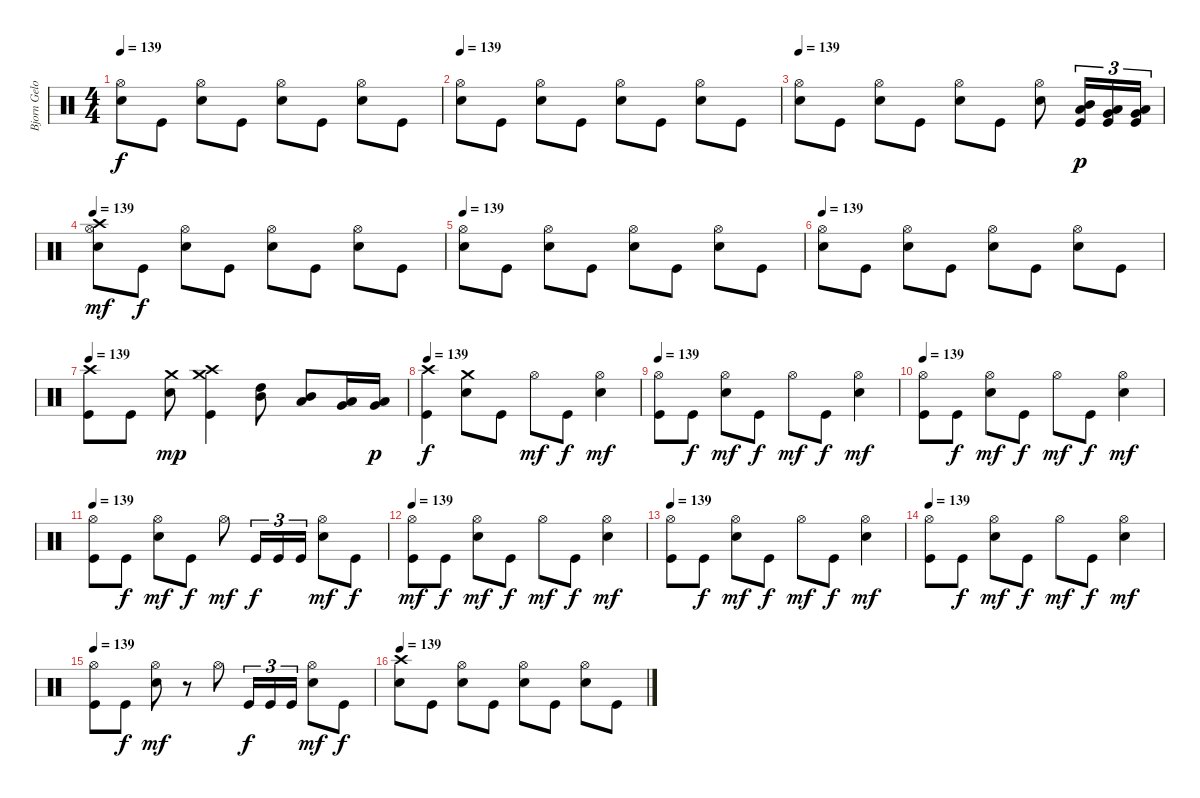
\track ("Bjorn Gelotte-Drum" "Bjorn Gelo") {instrument percussion}
\staff {score}
\articulation defaults
\ts (4 4)
\tempo 139
\clef neutral
\ks c
("Electric Snare (hit)" "Hi-Hat (open)").8{dy f} "Kick (hit)".8 ("Electric Snare (hit)" "Hi-Hat (open)").8 "Kick (hit)".8 ("Electric Snare (hit)" "Hi-Hat (open)").8 "Kick (hit)".8 ("Electric Snare (hit)" "Hi-Hat (open)").8 "Kick (hit)".8 |
\tempo 139
("Electric Snare (hit)" "Hi-Hat (open)").8 "Kick (hit)".8 ("Electric Snare (hit)" "Hi-Hat (open)").8 "Kick (hit)".8 ("Electric Snare (hit)" "Hi-Hat (open)").8 "Kick (hit)".8 ("Electric Snare (hit)" "Hi-Hat (open)").8 "Kick (hit)".8 |
\tempo 139
("Electric Snare (hit)" "Hi-Hat (open)").8 "Kick (hit)".8 ("Electric Snare (hit)" "Hi-Hat (open)").8 "Kick (hit)".8 ("Electric Snare (hit)" "Hi-Hat (open)").8 "Kick (hit)".8 ("Electric Snare (hit)" "Hi-Hat (open)").8 ("Kick (hit)" "Low Tom (hit)" "Mid Tom (hit)").16{tu (3 2) dy p} ("Kick (hit)" "Very Low Tom (hit)" "Low Tom (hit)").16{tu (3 2)} ("Kick (hit)" "Low Floor Tom (hit)" "Very Low Tom (hit)").16{tu (3 2)} |
\tempo 139
("Electric Snare (hit)" "Hi-Hat (open)" "Crash high (hit)").8{dy mf} "Kick (hit)".8{dy f} ("Electric Snare (hit)" "Hi-Hat (open)").8 "Kick (hit)".8 ("Electric Snare (hit)" "Hi-Hat (open)").8 "Kick (hit)".8 ("Electric Snare (hit)" "Hi-Hat (open)").8 "Kick (hit)".8 |
\tempo 139
("Electric Snare (hit)" "Hi-Hat (open)").8 "Kick (hit)".8 ("Electric Snare (hit)" "Hi-Hat (open)").8 "Kick (hit)".8 ("Electric Snare (hit)" "Hi-Hat (open)").8 "Kick (hit)".8 ("Electric Snare (hit)" "Hi-Hat (open)").8 "Kick (hit)".8 |
\tempo 139
("Electric Snare (hit)" "Hi-Hat (open)").8 "Kick (hit)".8 ("Electric Snare (hit)" "Hi-Hat (open)").8 "Kick (hit)".8 ("Electric Snare (hit)" "Hi-Hat (open)").8 "Kick (hit)".8 ("Electric Snare (hit)" "Hi-Hat (open)").8 "Kick (hit)".8 |
\tempo 139
("Kick (hit)" "Crash high (hit)").8 "Kick (hit)".8 ("Electric Snare (hit)" "Crash medium (hit)").8{dy mp} ("Kick (hit)" "Crash high (hit)" "Crash medium (hit)").4 ("Mid Tom (hit)" "High Tom (hit)").8 ("Low Tom (hit)" "Mid Tom (hit)").8 ("Very Low Tom (hit)" "Low Tom (hit)").16 ("Very Low Tom (hit)" "Low Tom (hit)").16{dy p} |
\tempo 139
("Kick (hit)" "Crash high (hit)").4{dy f} ("Electric Snare (hit)" "Crash medium (hit)").8 "Kick (hit)".8 "Hi-Hat (open)".8{dy mf} "Kick (hit)".8{dy f} ("Electric Snare (hit)" "Hi-Hat (open)").4{dy mf} |
\tempo 139
("Kick (hit)" "Hi-Hat (open)").8 "Kick (hit)".8{dy f} ("Electric Snare (hit)" "Hi-Hat (open)").8{dy mf} "Kick (hit)".8{dy f} "Hi-Hat (open)".8{dy mf} "Kick (hit)".8{dy f} ("Electric Snare (hit)" "Hi-Hat (open)").4{dy mf} |
\tempo 139
("Kick (hit)" "Hi-Hat (open)").8 "Kick (hit)".8{dy f} ("Electric Snare (hit)" "Hi-Hat (open)").8{dy mf} "Kick (hit)".8{dy f} "Hi-Hat (open)".8{dy mf} "Kick (hit)".8{dy f} ("Electric Snare (hit)" "Hi-Hat (open)").4{dy mf} |
\tempo 139
("Kick (hit)" "Hi-Hat (open)").8 "Kick (hit)".8{dy f} ("Electric Snare (hit)" "Hi-Hat (open)").8{dy mf} "Kick (hit)".8{dy f} "Hi-Hat (open)".8{dy mf} "Kick (hit)".16{tu (3 2) dy f} "Kick (hit)".16{tu (3 2)} "Kick (hit)".16{tu (3 2)} ("Electric Snare (hit)" "Hi-Hat (open)").8{dy mf} "Kick (hit)".8{dy f} |
\tempo 139
("Kick (hit)" "Hi-Hat (open)").8{dy mf} "Kick (hit)".8{dy f} ("Electric Snare (hit)" "Hi-Hat (open)").8{dy mf} "Kick (hit)".8{dy f} "Hi-Hat (open)".8{dy mf} "Kick (hit)".8{dy f} ("Electric Snare (hit)" "Hi-Hat (open)").4{dy mf} |
\tempo 139
("Kick (hit)" "Hi-Hat (open)").8 "Kick (hit)".8{dy f} ("Electric Snare (hit)" "Hi-Hat (open)").8{dy mf} "Kick (hit)".8{dy f} "Hi-Hat (open)".8{dy mf} "Kick (hit)".8{dy f} ("Electric Snare (hit)" "Hi-Hat (open)").4{dy mf} |
\tempo 139
("Kick (hit)" "Hi-Hat (open)").8 "Kick (hit)".8{dy f} ("Electric Snare (hit)" "Hi-Hat (open)").8{dy mf} "Kick (hit)".8{dy f} "Hi-Hat (open)".8{dy mf} "Kick (hit)".8{dy f} ("Electric Snare (hit)" "Hi-Hat (open)").4{dy mf} |
\tempo 139
("Kick (hit)" "Hi-Hat (open)").8 "Kick (hit)".8{dy f} ("Electric Snare (hit)" "Hi-Hat (open)").8{dy mf} r.8 "Hi-Hat (open)".8 "Kick (hit)".16{tu (3 2) dy f} "Kick (hit)".16{tu (3 2)} "Kick (hit)".16{tu (3 2)} ("Electric Snare (hit)" "Hi-Hat (open)").8{dy mf} "Kick (hit)".8{dy f} |
\tempo 139
("Electric Snare (hit)" "Crash high (hit)").8 "Kick (hit)".8 ("Electric Snare (hit)" "Hi-Hat (open)").8 "Kick (hit)".8 ("Electric Snare (hit)" "Hi-Hat (open)").8 "Kick (hit)".8 ("Electric Snare (hit)" "Hi-Hat (open)").8 "Kick (hit)".8
